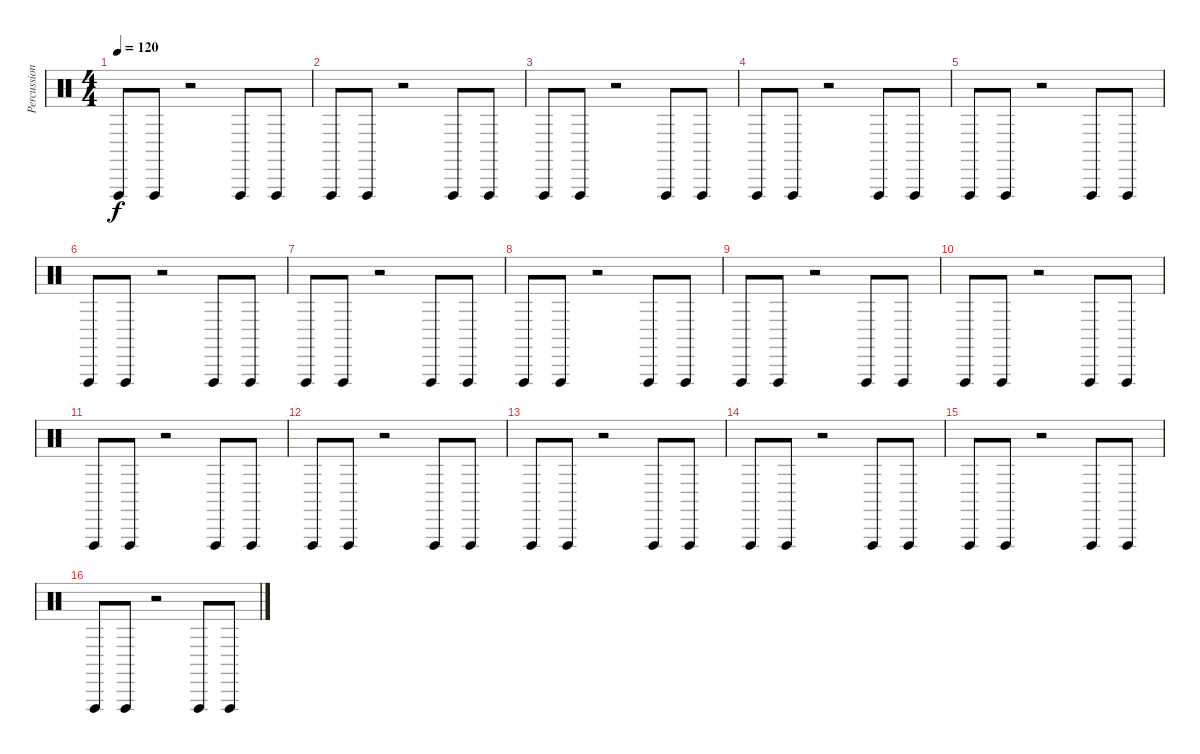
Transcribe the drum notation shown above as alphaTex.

\track ("Percussion Intro" "Percussion") {instrument percussion}
\staff {score}
\articulation defaults
\ts (4 4)
\tempo 120
\clef neutral
\ks c "Vibraslap (hit)".8{dy f} "Vibraslap (hit)".8
r.2 "Vibraslap (hit)".8 "Vibraslap (hit)".8 |
"Vibraslap (hit)".8 "Vibraslap (hit)".8 r.2 "Vibraslap (hit)".8 "Vibraslap (hit)".8 |
"Vibraslap (hit)".8 "Vibraslap (hit)".8 r.2 "Vibraslap (hit)".8 "Vibraslap (hit)".8 |
"Vibraslap (hit)".8 "Vibraslap (hit)".8 r.2 "Vibraslap (hit)".8 "Vibraslap (hit)".8 |
"Vibraslap (hit)".8 "Vibraslap (hit)".8 r.2 "Vibraslap (hit)".8 "Vibraslap (hit)".8 |
"Vibraslap (hit)".8 "Vibraslap (hit)".8 r.2 "Vibraslap (hit)".8 "Vibraslap (hit)".8 |
"Vibraslap (hit)".8 "Vibraslap (hit)".8 r.2 "Vibraslap (hit)".8 "Vibraslap (hit)".8 |
"Vibraslap (hit)".8 "Vibraslap (hit)".8 r.2 "Vibraslap (hit)".8 "Vibraslap (hit)".8 |
"Vibraslap (hit)".8 "Vibraslap (hit)".8 r.2 "Vibraslap (hit)".8 "Vibraslap (hit)".8 |
"Vibraslap (hit)".8 "Vibraslap (hit)".8 r.2 "Vibraslap (hit)".8 "Vibraslap (hit)".8 |
"Vibraslap (hit)".8 "Vibraslap (hit)".8 r.2 "Vibraslap (hit)".8 "Vibraslap (hit)".8 |
"Vibraslap (hit)".8 "Vibraslap (hit)".8 r.2 "Vibraslap (hit)".8 "Vibraslap (hit)".8 |
"Vibraslap (hit)".8 "Vibraslap (hit)".8 r.2 "Vibraslap (hit)".8 "Vibraslap (hit)".8 |
"Vibraslap (hit)".8 "Vibraslap (hit)".8 r.2 "Vibraslap (hit)".8 "Vibraslap (hit)".8 |
"Vibraslap (hit)".8 "Vibraslap (hit)".8 r.2 "Vibraslap (hit)".8 "Vibraslap (hit)".8 |
"Vibraslap (hit)".8 "Vibraslap (hit)".8 r.2 "Vibraslap (hit)".8 "Vibraslap (hit)".8
